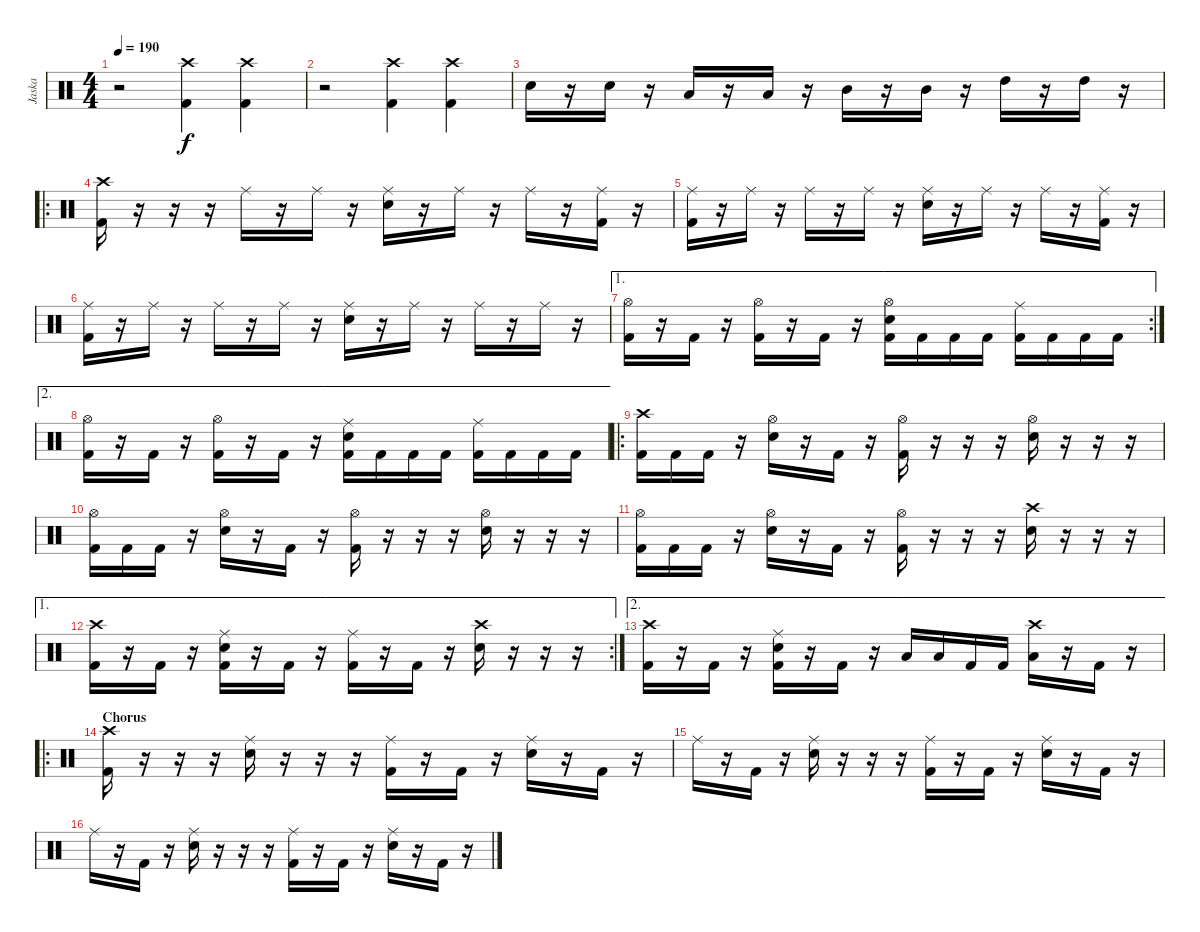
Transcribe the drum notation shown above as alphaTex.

\track ("Jaska" "Jaska") {instrument percussion}
\staff {score}
\articulation defaults
\ts (4 4)
\tempo 190
\clef neutral
\ks c
r.2{dy f} ("Crash high (hit)" "Kick (hit) 2").4 ("Crash high (hit)" "Kick (hit) 2").4 |
r.2 ("Crash high (hit)" "Kick (hit) 2").4 ("Crash high (hit)" "Kick (hit) 2").4 |
"Electric Snare (hit)".16 r.16 "Electric Snare (hit)".16 r.16 "Low Tom (hit)".16 r.16 "Low Tom (hit)".16 r.16 "Mid Tom (hit)".16 r.16 "Mid Tom (hit)".16 r.16 "High Tom (hit)".16 r.16 "High Tom (hit)".16 r.16 |
\ro
("Crash high (hit)" "Kick (hit) 2").16 r.16 r.16 r.16 "Ride (middle)".16 r.16 "Ride (middle)".16 r.16 ("Ride (middle)" "Electric Snare (hit)").16 r.16 "Ride (middle)".16 r.16 "Ride (middle)".16 r.16 ("Ride (middle)" "Kick (hit) 2").16 r.16 |
("Ride (middle)" "Kick (hit) 2").16 r.16 "Ride (middle)".16 r.16 "Ride (middle)".16 r.16 "Ride (middle)".16 r.16 ("Ride (middle)" "Electric Snare (hit)").16 r.16 "Ride (middle)".16 r.16 "Ride (middle)".16 r.16 ("Ride (middle)" "Kick (hit) 2").16 r.16 |
("Ride (middle)" "Kick (hit) 2").16 r.16 "Ride (middle)".16 r.16 "Ride (middle)".16 r.16 "Ride (middle)".16 r.16 ("Ride (middle)" "Electric Snare (hit)").16 r.16 "Ride (middle)".16 r.16 "Ride (middle)".16 r.16 "Ride (middle)".16 r.16 |
\ae 1
\rc 2
("Hi-Hat (open)" "Kick (hit) 2").16 r.16 "Kick (hit) 2".16 r.16 ("Hi-Hat (open)" "Kick (hit) 2").16 r.16 "Kick (hit) 2".16 r.16 ("Hi-Hat (open)" "Electric Snare (hit)" "Kick (hit) 2").16 "Kick (hit) 2".16 "Kick (hit) 2".16 "Kick (hit) 2".16 ("Ride (middle)" "Kick (hit) 2").16 "Kick (hit) 2".16 "Kick (hit) 2".16 "Kick (hit) 2".16 |
\ae 2
("Hi-Hat (open)" "Kick (hit) 2").16 r.16 "Kick (hit) 2".16 r.16 ("Hi-Hat (open)" "Kick (hit) 2").16 r.16 "Kick (hit) 2".16 r.16 ("Ride (middle)" "Electric Snare (hit)" "Kick (hit) 2").16 "Kick (hit) 2".16 "Kick (hit) 2".16 "Kick (hit) 2".16 ("Ride (middle)" "Kick (hit) 2").16 "Kick (hit) 2".16 "Kick (hit) 2".16 "Kick (hit) 2".16 |
\ro
("Crash high (hit)" "Kick (hit) 2").16 "Kick (hit) 2".16 "Kick (hit) 2".16 r.16 ("Hi-Hat (open)" "Electric Snare (hit)").16 r.16 "Kick (hit) 2".16 r.16 ("Hi-Hat (open)" "Kick (hit) 2").16 r.16 r.16 r.16 ("Hi-Hat (open)" "Electric Snare (hit)").16 r.16 r.16 r.16 |
("Hi-Hat (open)" "Kick (hit) 2").16 "Kick (hit) 2".16 "Kick (hit) 2".16 r.16 ("Hi-Hat (open)" "Electric Snare (hit)").16 r.16 "Kick (hit) 2".16 r.16 ("Hi-Hat (open)" "Kick (hit) 2").16 r.16 r.16 r.16 ("Hi-Hat (open)" "Electric Snare (hit)").16 r.16 r.16 r.16 |
("Hi-Hat (open)" "Kick (hit) 2").16 "Kick (hit) 2".16 "Kick (hit) 2".16 r.16 ("Hi-Hat (open)" "Electric Snare (hit)").16 r.16 "Kick (hit) 2".16 r.16 ("Hi-Hat (open)" "Kick (hit) 2").16 r.16 r.16 r.16 ("Crash high (hit)" "Electric Snare (hit)").16 r.16 r.16 r.16 |
\ae 1
\rc 2
("Crash high (hit)" "Kick (hit) 2").16 r.16 "Kick (hit) 2".16 r.16 ("Ride (middle)" "Electric Snare (hit)" "Kick (hit) 2").16 r.16 "Kick (hit) 2".16 r.16 ("Ride (middle)" "Kick (hit) 2").16 r.16 "Kick (hit) 2".16 r.16 ("Crash high (hit)" "Electric Snare (hit)").16 r.16 r.16 r.16 |
\ae 2
("Crash high (hit)" "Kick (hit) 2").16 r.16 "Kick (hit) 2".16 r.16 ("Ride (middle)" "Electric Snare (hit)" "Kick (hit) 2").16 r.16 "Kick (hit) 2".16 r.16 "Low Tom (hit)".16 "Low Tom (hit)".16 "Kick (hit) 2".16 "Kick (hit) 2".16 ("Crash high (hit)" "Low Tom (hit)").16 r.16 "Kick (hit) 2".16 r.16 |
\ro
\section ("" "Chorus")
("Crash high (hit)" "Kick (hit) 2").16 r.16 r.16 r.16 ("Ride (middle)" "Electric Snare (hit)").16 r.16 r.16 r.16 ("Ride (middle)" "Kick (hit) 2").16 r.16 "Kick (hit) 2".16 r.16 ("Ride (middle)" "Electric Snare (hit)").16 r.16 "Kick (hit) 2".16 r.16 |
"Ride (middle)".16 r.16 "Kick (hit) 2".16 r.16 ("Ride (middle)" "Electric Snare (hit)").16 r.16 r.16 r.16 ("Ride (middle)" "Kick (hit) 2").16 r.16 "Kick (hit) 2".16 r.16 ("Ride (middle)" "Electric Snare (hit)").16 r.16 "Kick (hit) 2".16 r.16 |
"Ride (middle)".16 r.16 "Kick (hit) 2".16 r.16 ("Ride (middle)" "Electric Snare (hit)").16 r.16 r.16 r.16 ("Ride (middle)" "Kick (hit) 2").16 r.16 "Kick (hit) 2".16 r.16 ("Ride (middle)" "Electric Snare (hit)").16 r.16 "Kick (hit) 2".16 r.16
